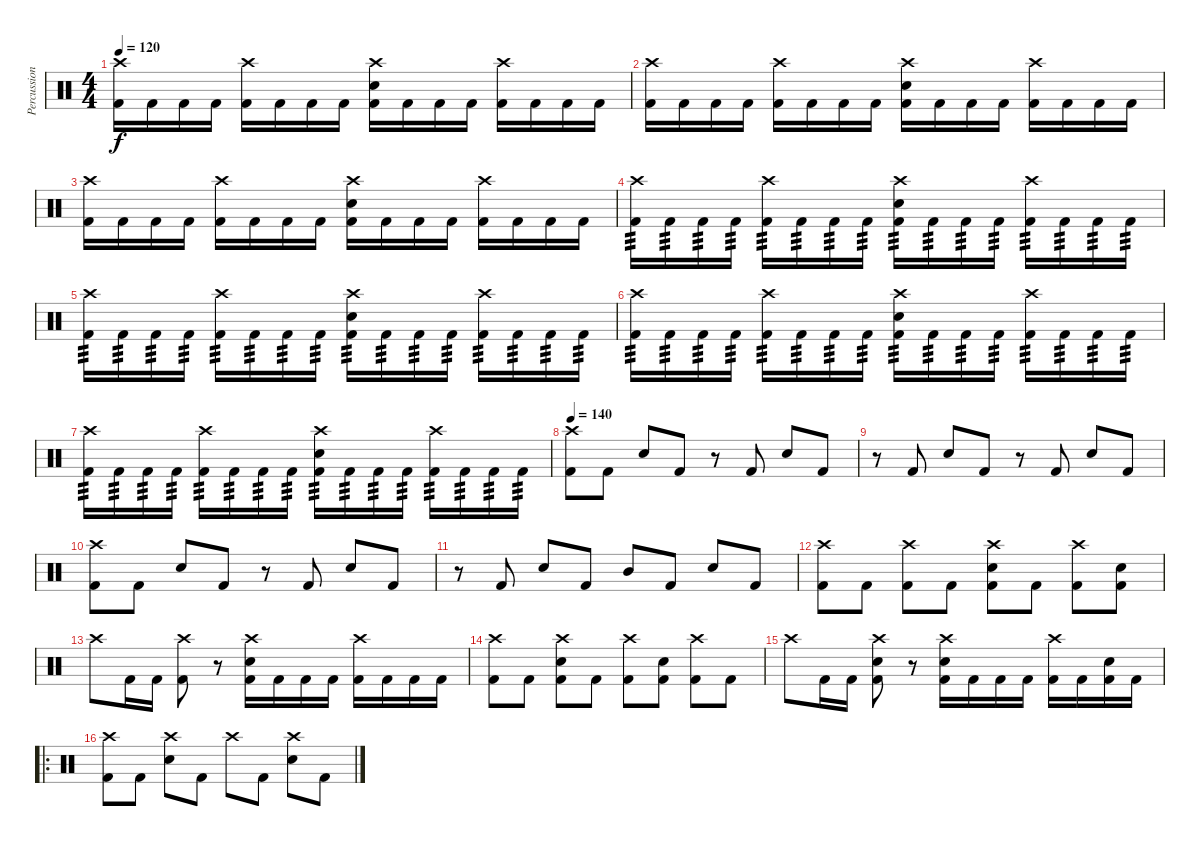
\track ("Percussion" "Percussion") {instrument percussion}
\staff {score}
\articulation defaults
\ts (4 4)
\tempo 120
\clef neutral
\ks c
("Crash high (hit)" "Kick (hit) 2").16{dy f} "Kick (hit) 2".16 "Kick (hit) 2".16 "Kick (hit) 2".16 ("Crash high (hit)" "Kick (hit) 2").16 "Kick (hit) 2".16 "Kick (hit) 2".16 "Kick (hit) 2".16 ("Crash high (hit)" "Electric Snare (hit)" "Kick (hit) 2").16 "Kick (hit) 2".16 "Kick (hit) 2".16 "Kick (hit) 2".16 ("Crash high (hit)" "Kick (hit) 2").16 "Kick (hit) 2".16 "Kick (hit) 2".16 "Kick (hit) 2".16 |
("Crash high (hit)" "Kick (hit) 2").16 "Kick (hit) 2".16 "Kick (hit) 2".16 "Kick (hit) 2".16 ("Crash high (hit)" "Kick (hit) 2").16 "Kick (hit) 2".16 "Kick (hit) 2".16 "Kick (hit) 2".16 ("Crash high (hit)" "Electric Snare (hit)" "Kick (hit) 2").16 "Kick (hit) 2".16 "Kick (hit) 2".16 "Kick (hit) 2".16 ("Crash high (hit)" "Kick (hit) 2").16 "Kick (hit) 2".16 "Kick (hit) 2".16 "Kick (hit) 2".16 |
("Crash high (hit)" "Kick (hit) 2").16 "Kick (hit) 2".16 "Kick (hit) 2".16 "Kick (hit) 2".16 ("Crash high (hit)" "Kick (hit) 2").16 "Kick (hit) 2".16 "Kick (hit) 2".16 "Kick (hit) 2".16 ("Crash high (hit)" "Electric Snare (hit)" "Kick (hit) 2").16 "Kick (hit) 2".16 "Kick (hit) 2".16 "Kick (hit) 2".16 ("Crash high (hit)" "Kick (hit) 2").16 "Kick (hit) 2".16 "Kick (hit) 2".16 "Kick (hit) 2".16 |
("Crash high (hit)" "Kick (hit) 2").16{tp 3} "Kick (hit) 2".16{tp 3} "Kick (hit) 2".16{tp 3} "Kick (hit) 2".16{tp 3} ("Crash high (hit)" "Kick (hit) 2").16{tp 3} "Kick (hit) 2".16{tp 3} "Kick (hit) 2".16{tp 3} "Kick (hit) 2".16{tp 3} ("Crash high (hit)" "Electric Snare (hit)" "Kick (hit) 2").16{tp 3} "Kick (hit) 2".16{tp 3} "Kick (hit) 2".16{tp 3} "Kick (hit) 2".16{tp 3} ("Crash high (hit)" "Kick (hit) 2").16{tp 3} "Kick (hit) 2".16{tp 3} "Kick (hit) 2".16{tp 3} "Kick (hit) 2".16{tp 3} |
("Crash high (hit)" "Kick (hit) 2").16{tp 3} "Kick (hit) 2".16{tp 3} "Kick (hit) 2".16{tp 3} "Kick (hit) 2".16{tp 3} ("Crash high (hit)" "Kick (hit) 2").16{tp 3} "Kick (hit) 2".16{tp 3} "Kick (hit) 2".16{tp 3} "Kick (hit) 2".16{tp 3} ("Crash high (hit)" "Electric Snare (hit)" "Kick (hit) 2").16{tp 3} "Kick (hit) 2".16{tp 3} "Kick (hit) 2".16{tp 3} "Kick (hit) 2".16{tp 3} ("Crash high (hit)" "Kick (hit) 2").16{tp 3} "Kick (hit) 2".16{tp 3} "Kick (hit) 2".16{tp 3} "Kick (hit) 2".16{tp 3} |
("Crash high (hit)" "Kick (hit) 2").16{tp 3} "Kick (hit) 2".16{tp 3} "Kick (hit) 2".16{tp 3} "Kick (hit) 2".16{tp 3} ("Crash high (hit)" "Kick (hit) 2").16{tp 3} "Kick (hit) 2".16{tp 3} "Kick (hit) 2".16{tp 3} "Kick (hit) 2".16{tp 3} ("Crash high (hit)" "Electric Snare (hit)" "Kick (hit) 2").16{tp 3} "Kick (hit) 2".16{tp 3} "Kick (hit) 2".16{tp 3} "Kick (hit) 2".16{tp 3} ("Crash high (hit)" "Kick (hit) 2").16{tp 3} "Kick (hit) 2".16{tp 3} "Kick (hit) 2".16{tp 3} "Kick (hit) 2".16{tp 3} |
("Crash high (hit)" "Kick (hit) 2").16{tp 3} "Kick (hit) 2".16{tp 3} "Kick (hit) 2".16{tp 3} "Kick (hit) 2".16{tp 3} ("Crash high (hit)" "Kick (hit) 2").16{tp 3} "Kick (hit) 2".16{tp 3} "Kick (hit) 2".16{tp 3} "Kick (hit) 2".16{tp 3} ("Crash high (hit)" "Electric Snare (hit)" "Kick (hit) 2").16{tp 3} "Kick (hit) 2".16{tp 3} "Kick (hit) 2".16{tp 3} "Kick (hit) 2".16{tp 3} ("Crash high (hit)" "Kick (hit) 2").16{tp 3} "Kick (hit) 2".16{tp 3} "Kick (hit) 2".16{tp 3} "Kick (hit) 2".16{tp 3} |
\tempo 140
("Crash high (hit)" "Kick (hit) 2").8 "Kick (hit) 2".8 "Electric Snare (hit)".8 "Kick (hit) 2".8 r.8 "Kick (hit) 2".8 "Electric Snare (hit)".8 "Kick (hit) 2".8 |
r.8 "Kick (hit) 2".8 "Electric Snare (hit)".8 "Kick (hit) 2".8 r.8 "Kick (hit) 2".8 "Electric Snare (hit)".8 "Kick (hit) 2".8 |
("Crash high (hit)" "Kick (hit) 2").8 "Kick (hit) 2".8 "Electric Snare (hit)".8 "Kick (hit) 2".8 r.8 "Kick (hit) 2".8 "Electric Snare (hit)".8 "Kick (hit) 2".8 |
r.8 "Kick (hit) 2".8 "Electric Snare (hit)".8 "Kick (hit) 2".8 "Mid Tom (hit)".8 "Kick (hit) 2".8 "Electric Snare (hit)".8 "Kick (hit) 2".8 |
("Crash high (hit)" "Kick (hit) 2").8 "Kick (hit) 2".8 ("Crash high (hit)" "Kick (hit) 2").8 "Kick (hit) 2".8 ("Crash high (hit)" "Electric Snare (hit)" "Kick (hit) 2").8 "Kick (hit) 2".8 ("Crash high (hit)" "Kick (hit) 2").8 ("Electric Snare (hit)" "Kick (hit) 2").8 |
"Crash high (hit)".8 "Kick (hit) 2".16 "Kick (hit) 2".16 ("Crash high (hit)" "Kick (hit) 2").8 r.8 ("Crash high (hit)" "Electric Snare (hit)" "Kick (hit) 2").16 "Kick (hit) 2".16 "Kick (hit) 2".16 "Kick (hit) 2".16 ("Crash high (hit)" "Kick (hit) 2").16 "Kick (hit) 2".16 "Kick (hit) 2".16 "Kick (hit) 2".16 |
("Crash high (hit)" "Kick (hit) 2").8 "Kick (hit) 2".8 ("Crash high (hit)" "Electric Snare (hit)" "Kick (hit) 2").8 "Kick (hit) 2".8 ("Crash high (hit)" "Kick (hit) 2").8 ("Electric Snare (hit)" "Kick (hit) 2").8 ("Crash high (hit)" "Kick (hit) 2").8 "Kick (hit) 2".8 |
"Crash high (hit)".8 "Kick (hit) 2".16 "Kick (hit) 2".16 ("Crash high (hit)" "Electric Snare (hit)" "Kick (hit) 2").8 r.8 ("Crash high (hit)" "Electric Snare (hit)" "Kick (hit) 2").16 "Kick (hit) 2".16 "Kick (hit) 2".16 "Kick (hit) 2".16 ("Crash high (hit)" "Kick (hit) 2").16 "Kick (hit) 2".16 ("Electric Snare (hit)" "Kick (hit) 2").16 "Kick (hit) 2".16 |
\ro
("Crash high (hit)" "Kick (hit) 2").8 "Kick (hit) 2".8 ("Crash high (hit)" "Electric Snare (hit)").8 "Kick (hit) 2".8 "Crash high (hit)".8 "Kick (hit) 2".8 ("Crash high (hit)" "Electric Snare (hit)").8 "Kick (hit) 2".8
